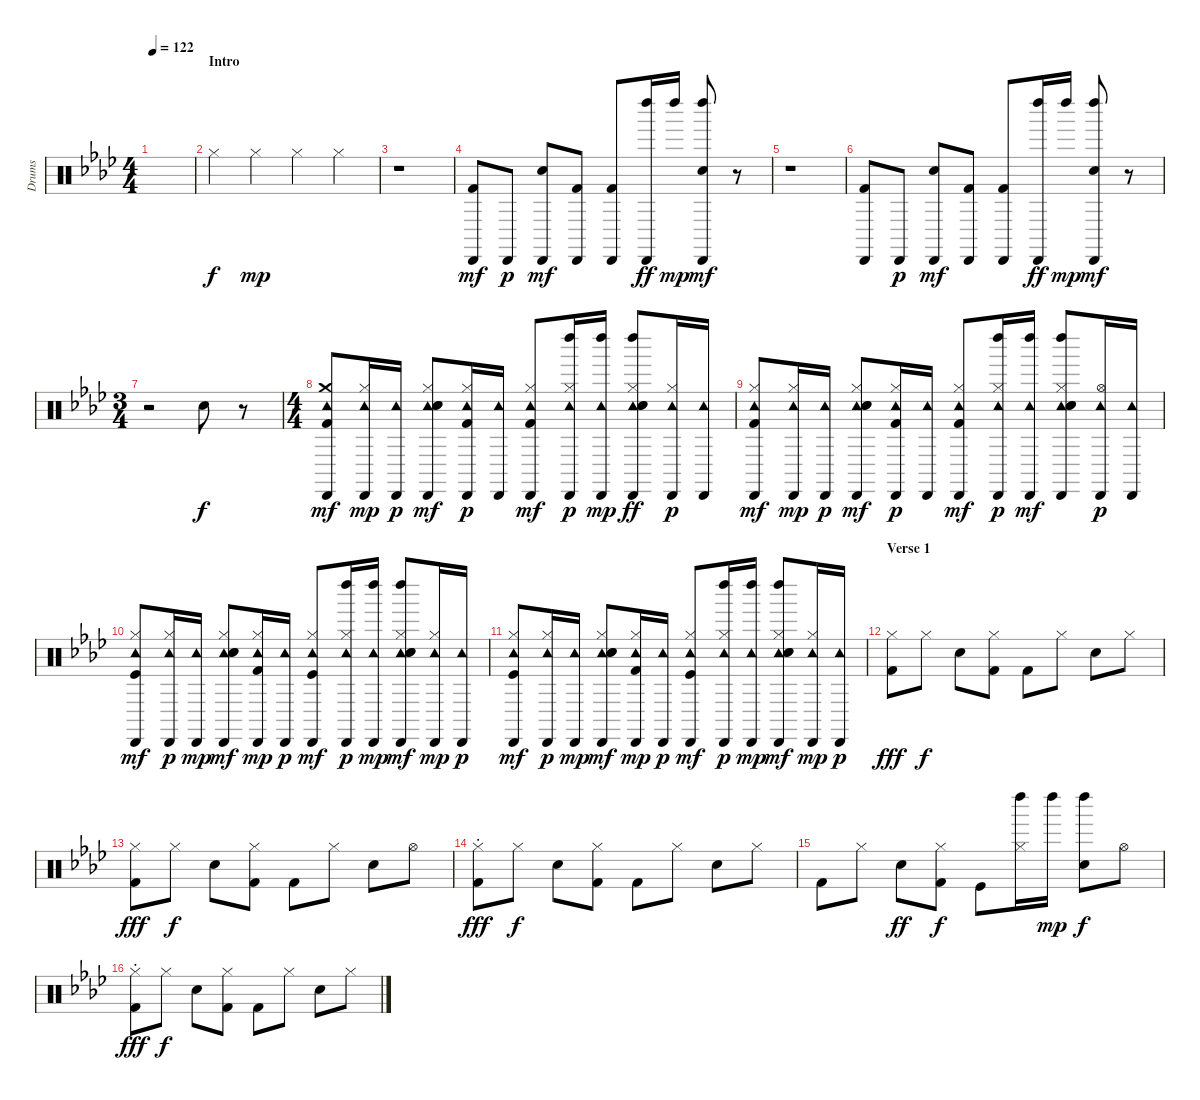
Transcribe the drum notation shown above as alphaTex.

\track ("Drums" "Drums") {instrument percussion}
\staff {score}
\articulation defaults
\ts (4 4)
\tempo 122
\clef neutral
\ks ab
|
\section ("" "Intro")
"Hi-Hat (closed)".4 "Hi-Hat (closed)".4{dy mp} "Hi-Hat (closed)".4 "Hi-Hat (closed)".4 |
r.1 |
("Cabasa (hit)" "Kick (hit) 2").8{dy mf} "Cabasa (hit)".8{dy p} ("Cabasa (hit)" "Hand Clap (hit)").8{dy mf} ("Cabasa (hit)" "Kick (hit) 2").8 ("Cabasa (hit)" "Kick (hit) 2").8 ("Cabasa (hit)" "Left Maraca (hit)").16{dy ff} "Left Maraca (hit)".16{dy mp} ("Cabasa (hit)" "Left Maraca (hit)" "Hand Clap (hit)").8{dy mf} r.8 |
r.1 |
("Cabasa (hit)" "Kick (hit) 2").8 "Cabasa (hit)".8{dy p} ("Cabasa (hit)" "Hand Clap (hit)").8{dy mf} ("Cabasa (hit)" "Kick (hit) 2").8 ("Cabasa (hit)" "Kick (hit) 2").8 ("Cabasa (hit)" "Left Maraca (hit)").16{dy ff} "Left Maraca (hit)".16{dy mp} ("Cabasa (hit)" "Left Maraca (hit)" "Hand Clap (hit)").8{dy mf} r.8 |
\ts (3 4)
r.2 "Electric Snare (hit)".8{dy f} r.8 |
\ts (4 4)
("Crash medium (hit)" "Cabasa (hit)" "Tambourine (hit)" "Kick (hit) 2").8{dy mf} ("Hi-Hat (closed)" "Cabasa (hit)" "Tambourine (hit)").16{dy mp} ("Cabasa (hit)" "Tambourine (hit)").16{dy p} ("Hi-Hat (closed)" "Cabasa (hit)" "Tambourine (hit)" "Hand Clap (hit)" "Electric Snare (hit)").8{dy mf} ("Hi-Hat (closed)" "Cabasa (hit)" "Tambourine (hit)" "Kick (hit) 2").16{dy p} ("Cabasa (hit)" "Tambourine (hit)").16 ("Hi-Hat (closed)" "Cabasa (hit)" "Tambourine (hit)" "Kick (hit) 2").8{dy mf} ("Hi-Hat (closed)" "Cabasa (hit)" "Tambourine (hit)" "Left Maraca (hit)").16{dy p} ("Cabasa (hit)" "Tambourine (hit)" "Left Maraca (hit)").16{dy mp} ("Hi-Hat (closed)" "Cabasa (hit)" "Tambourine (hit)" "Left Maraca (hit)" "Electric Snare (hit)" "Hand Clap (hit)").8{dy ff} ("Hi-Hat (closed)" "Cabasa (hit)" "Tambourine (hit)").16{dy p} ("Cabasa (hit)" "Tambourine (hit)").16 |
("Hi-Hat (closed)" "Cabasa (hit)" "Tambourine (hit)" "Kick (hit) 2").8{dy mf} ("Hi-Hat (closed)" "Cabasa (hit)" "Tambourine (hit)").16{dy mp} ("Cabasa (hit)" "Tambourine (hit)").16{dy p} ("Hi-Hat (closed)" "Cabasa (hit)" "Tambourine (hit)" "Hand Clap (hit)" "Electric Snare (hit)").8{dy mf} ("Hi-Hat (closed)" "Cabasa (hit)" "Tambourine (hit)" "Kick (hit) 2").16{dy p} ("Cabasa (hit)" "Tambourine (hit)").16 ("Hi-Hat (closed)" "Cabasa (hit)" "Tambourine (hit)" "Kick (hit) 2").8{dy mf} ("Hi-Hat (closed)" "Cabasa (hit)" "Tambourine (hit)" "Left Maraca (hit)").16{dy p} ("Cabasa (hit)" "Tambourine (hit)" "Left Maraca (hit)").16{dy mf} ("Hi-Hat (closed)" "Cabasa (hit)" "Tambourine (hit)" "Left Maraca (hit)" "Electric Snare (hit)" "Hand Clap (hit)").8 ("Hi-Hat (open)" "Cabasa (hit)" "Tambourine (hit)").16{dy p} ("Cabasa (hit)" "Tambourine (hit)").16 |
("Hi-Hat (closed)" "Cabasa (hit)" "Tambourine (hit)" "Kick (hit)").8{dy mf} ("Hi-Hat (closed)" "Cabasa (hit)" "Tambourine (hit)").16{dy p} ("Cabasa (hit)" "Tambourine (hit)").16{dy mp} ("Hi-Hat (closed)" "Cabasa (hit)" "Tambourine (hit)" "Electric Snare (hit)" "Hand Clap (hit)").8{dy mf} ("Hi-Hat (closed)" "Cabasa (hit)" "Tambourine (hit)" "Kick (hit) 2").16{dy mp} ("Cabasa (hit)" "Tambourine (hit)").16{dy p} ("Hi-Hat (closed)" "Cabasa (hit)" "Tambourine (hit)" "Kick (hit)").8{dy mf} ("Hi-Hat (closed)" "Cabasa (hit)" "Tambourine (hit)" "Left Maraca (hit)").16{dy p} ("Cabasa (hit)" "Tambourine (hit)" "Left Maraca (hit)").16{dy mp} ("Hi-Hat (closed)" "Cabasa (hit)" "Tambourine (hit)" "Left Maraca (hit)" "Electric Snare (hit)" "Hand Clap (hit)").8{dy mf} ("Hi-Hat (closed)" "Cabasa (hit)" "Tambourine (hit)").16{dy mp} ("Cabasa (hit)" "Tambourine (hit)").16{dy p} |
("Hi-Hat (closed)" "Cabasa (hit)" "Tambourine (hit)" "Kick (hit)").8{dy mf} ("Hi-Hat (closed)" "Cabasa (hit)" "Tambourine (hit)").16{dy p} ("Cabasa (hit)" "Tambourine (hit)").16{dy mp} ("Hi-Hat (closed)" "Cabasa (hit)" "Tambourine (hit)" "Electric Snare (hit)" "Hand Clap (hit)").8{dy mf} ("Hi-Hat (closed)" "Cabasa (hit)" "Tambourine (hit)" "Kick (hit) 2").16{dy mp} ("Cabasa (hit)" "Tambourine (hit)").16{dy p} ("Hi-Hat (closed)" "Cabasa (hit)" "Tambourine (hit)" "Kick (hit)").8{dy mf} ("Hi-Hat (closed)" "Cabasa (hit)" "Tambourine (hit)" "Left Maraca (hit)").16{dy p} ("Cabasa (hit)" "Tambourine (hit)" "Left Maraca (hit)").16{dy mp} ("Hi-Hat (closed)" "Cabasa (hit)" "Tambourine (hit)" "Left Maraca (hit)" "Electric Snare (hit)" "Hand Clap (hit)").8{dy mf} ("Hi-Hat (closed)" "Cabasa (hit)" "Tambourine (hit)").16{dy mp} ("Cabasa (hit)" "Tambourine (hit)").16{dy p} |
\section ("" "Verse 1")
("Hi-Hat (closed)" "Kick (hit) 2").8{dy fff} "Hi-Hat (closed)".8{dy f} "Hand Clap (hit)".8 ("Hi-Hat (closed)" "Kick (hit) 2").8 "Kick (hit) 2".8 "Hi-Hat (closed)".8 "Hand Clap (hit)".8 "Hi-Hat (closed)".8 |
("Hi-Hat (closed)" "Kick (hit) 2").8{dy fff} "Hi-Hat (closed)".8{dy f} "Hand Clap (hit)".8 ("Hi-Hat (closed)" "Kick (hit) 2").8 "Kick (hit) 2".8 "Hi-Hat (closed)".8 "Hand Clap (hit)".8 "Hi-Hat (open)".8 |
("Hi-Hat (closed)"{st} "Kick (hit) 2").8{dy fff} "Hi-Hat (closed)".8{dy f} "Hand Clap (hit)".8 ("Hi-Hat (closed)" "Kick (hit) 2").8 "Kick (hit) 2".8 "Hi-Hat (closed)".8 "Hand Clap (hit)".8 "Hi-Hat (closed)".8 |
"Kick (hit) 2".8 "Hi-Hat (closed)".8 "Hand Clap (hit)".8{dy ff} ("Hi-Hat (closed)" "Kick (hit) 2").8{dy f} "Kick (hit)".8 ("Hi-Hat (closed)" "Left Maraca (hit)").16 "Left Maraca (hit)".16{dy mp} ("Left Maraca (hit)" "Hand Clap (hit)").8{dy f} "Hi-Hat (open)".8 |
("Hi-Hat (closed)"{st} "Kick (hit) 2").8{dy fff} "Hi-Hat (closed)".8{dy f} "Hand Clap (hit)".8 ("Hi-Hat (closed)" "Kick (hit) 2").8 "Kick (hit) 2".8 "Hi-Hat (closed)".8 "Hand Clap (hit)".8 "Hi-Hat (closed)".8
